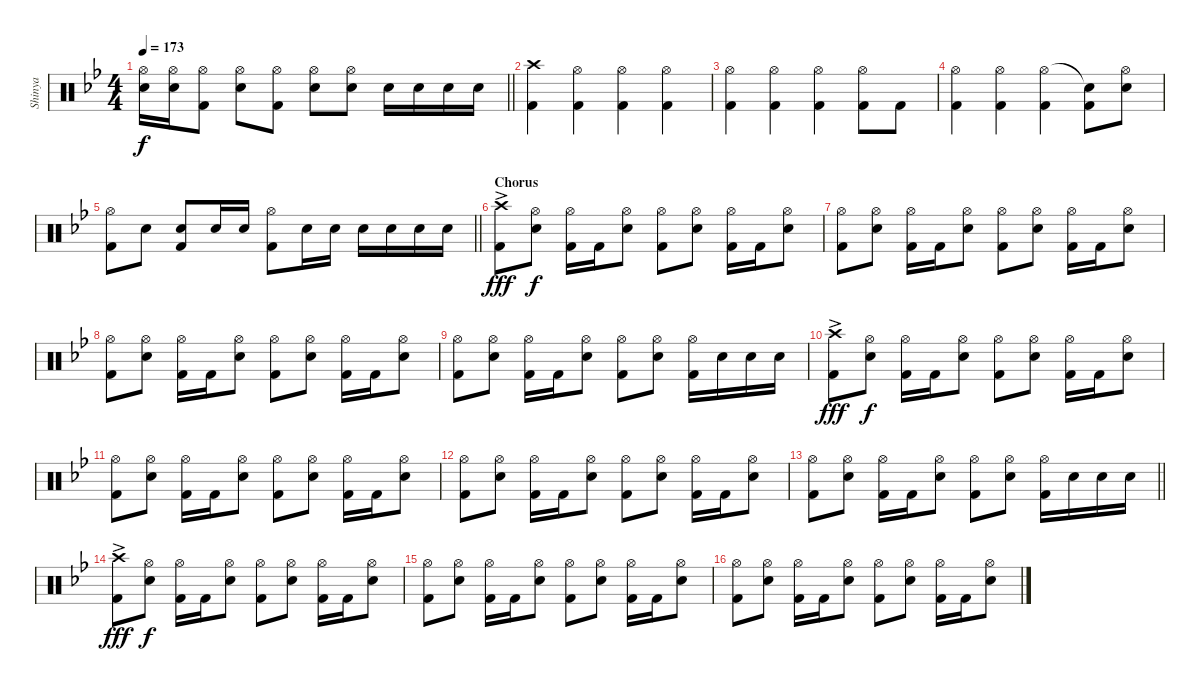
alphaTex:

\track ("Shinya" "Shinya") {instrument percussion}
\staff {score}
\articulation defaults
\ts (4 4)
\tempo 173
\clef neutral
\barLineRight lightlight
\ks bb
("Hi-Hat (open)" "Snare (hit) 2").16{dy f} ("Hi-Hat (open)" "Snare (hit) 2").16 ("Hi-Hat (open)" "Kick (hit) 2").8 ("Hi-Hat (open)" "Snare (hit) 2").8 ("Hi-Hat (open)" "Kick (hit) 2").8 ("Hi-Hat (open)" "Snare (hit) 2").8 ("Hi-Hat (open)" "Snare (hit) 2").8 "Snare (hit) 2".16 "Snare (hit) 2".16 "Snare (hit) 2".16 "Snare (hit) 2".16 |
("Crash high (hit)" "Kick (hit) 2").4 ("Hi-Hat (open)" "Kick (hit) 2").4 ("Hi-Hat (open)" "Kick (hit) 2").4 ("Hi-Hat (open)" "Kick (hit) 2").4 |
("Hi-Hat (open)" "Kick (hit) 2").4 ("Hi-Hat (open)" "Kick (hit) 2").4 ("Hi-Hat (open)" "Kick (hit) 2").4 ("Hi-Hat (open)" "Kick (hit) 2").8 "Kick (hit) 2".8 |
("Hi-Hat (open)" "Kick (hit) 2").4 ("Hi-Hat (open)" "Kick (hit) 2").4 ("Hi-Hat (open)" "Kick (hit) 2").4 ("Snare (hit)"{t} "Kick (hit) 2").8 ("Hi-Hat (open)" "Snare (hit) 2").8 |
\barLineRight lightlight
("Hi-Hat (open)" "Kick (hit) 2").8 "Snare (hit) 2".8 ("Snare (hit) 2" "Kick (hit) 2").8 "Snare (hit) 2".16 "Snare (hit) 2".16 ("Hi-Hat (open)" "Kick (hit) 2").8 "Snare (hit) 2".16 "Snare (hit) 2".16 "Snare (hit) 2".16 "Snare (hit) 2".16 "Snare (hit) 2".16 "Snare (hit) 2".16 |
\section ("" "Chorus")
("Crash high (hit)"{ac} "Kick (hit) 2").8{dy fff} ("Hi-Hat (open)" "Snare (hit) 2").8{dy f} ("Hi-Hat (open)" "Kick (hit) 2").16 "Kick (hit) 2".16 ("Hi-Hat (open)" "Snare (hit) 2").8 ("Hi-Hat (open)" "Kick (hit) 2").8 ("Hi-Hat (open)" "Snare (hit) 2").8 ("Hi-Hat (open)" "Kick (hit) 2").16 "Kick (hit) 2".16 ("Hi-Hat (open)" "Snare (hit) 2").8 |
("Hi-Hat (open)" "Kick (hit) 2").8 ("Hi-Hat (open)" "Snare (hit) 2").8 ("Hi-Hat (open)" "Kick (hit) 2").16 "Kick (hit) 2".16 ("Hi-Hat (open)" "Snare (hit) 2").8 ("Hi-Hat (open)" "Kick (hit) 2").8 ("Hi-Hat (open)" "Snare (hit) 2").8 ("Hi-Hat (open)" "Kick (hit) 2").16 "Kick (hit) 2".16 ("Hi-Hat (open)" "Snare (hit) 2").8 |
("Hi-Hat (open)" "Kick (hit) 2").8 ("Hi-Hat (open)" "Snare (hit) 2").8 ("Hi-Hat (open)" "Kick (hit) 2").16 "Kick (hit) 2".16 ("Hi-Hat (open)" "Snare (hit) 2").8 ("Hi-Hat (open)" "Kick (hit) 2").8 ("Hi-Hat (open)" "Snare (hit) 2").8 ("Hi-Hat (open)" "Kick (hit) 2").16 "Kick (hit) 2".16 ("Hi-Hat (open)" "Snare (hit) 2").8 |
("Hi-Hat (open)" "Kick (hit) 2").8 ("Hi-Hat (open)" "Snare (hit) 2").8 ("Hi-Hat (open)" "Kick (hit) 2").16 "Kick (hit) 2".16 ("Hi-Hat (open)" "Snare (hit) 2").8 ("Hi-Hat (open)" "Kick (hit) 2").8 ("Hi-Hat (open)" "Snare (hit) 2").8 ("Hi-Hat (open)" "Kick (hit) 2").16 "Snare (hit) 2".16 "Snare (hit) 2".16 "Snare (hit) 2".16 |
("Crash high (hit)"{ac} "Kick (hit) 2").8{dy fff} ("Hi-Hat (open)" "Snare (hit) 2").8{dy f} ("Hi-Hat (open)" "Kick (hit) 2").16 "Kick (hit) 2".16 ("Hi-Hat (open)" "Snare (hit) 2").8 ("Hi-Hat (open)" "Kick (hit) 2").8 ("Hi-Hat (open)" "Snare (hit) 2").8 ("Hi-Hat (open)" "Kick (hit) 2").16 "Kick (hit) 2".16 ("Hi-Hat (open)" "Snare (hit) 2").8 |
("Hi-Hat (open)" "Kick (hit) 2").8 ("Hi-Hat (open)" "Snare (hit) 2").8 ("Hi-Hat (open)" "Kick (hit) 2").16 "Kick (hit) 2".16 ("Hi-Hat (open)" "Snare (hit) 2").8 ("Hi-Hat (open)" "Kick (hit) 2").8 ("Hi-Hat (open)" "Snare (hit) 2").8 ("Hi-Hat (open)" "Kick (hit) 2").16 "Kick (hit) 2".16 ("Hi-Hat (open)" "Snare (hit) 2").8 |
("Hi-Hat (open)" "Kick (hit) 2").8 ("Hi-Hat (open)" "Snare (hit) 2").8 ("Hi-Hat (open)" "Kick (hit) 2").16 "Kick (hit) 2".16 ("Hi-Hat (open)" "Snare (hit) 2").8 ("Hi-Hat (open)" "Kick (hit) 2").8 ("Hi-Hat (open)" "Snare (hit) 2").8 ("Hi-Hat (open)" "Kick (hit) 2").16 "Kick (hit) 2".16 ("Hi-Hat (open)" "Snare (hit) 2").8 |
\barLineRight lightlight
("Hi-Hat (open)" "Kick (hit) 2").8 ("Hi-Hat (open)" "Snare (hit) 2").8 ("Hi-Hat (open)" "Kick (hit) 2").16 "Kick (hit) 2".16 ("Hi-Hat (open)" "Snare (hit) 2").8 ("Hi-Hat (open)" "Kick (hit) 2").8 ("Hi-Hat (open)" "Snare (hit) 2").8 ("Hi-Hat (open)" "Kick (hit) 2").16 "Snare (hit) 2".16 "Snare (hit) 2".16 "Snare (hit) 2".16 |
("Crash high (hit)"{ac} "Kick (hit) 2").8{dy fff} ("Hi-Hat (open)" "Snare (hit) 2").8{dy f} ("Hi-Hat (open)" "Kick (hit) 2").16 "Kick (hit) 2".16 ("Hi-Hat (open)" "Snare (hit) 2").8 ("Hi-Hat (open)" "Kick (hit) 2").8 ("Hi-Hat (open)" "Snare (hit) 2").8 ("Hi-Hat (open)" "Kick (hit) 2").16 "Kick (hit) 2".16 ("Hi-Hat (open)" "Snare (hit) 2").8 |
("Hi-Hat (open)" "Kick (hit) 2").8 ("Hi-Hat (open)" "Snare (hit) 2").8 ("Hi-Hat (open)" "Kick (hit) 2").16 "Kick (hit) 2".16 ("Hi-Hat (open)" "Snare (hit) 2").8 ("Hi-Hat (open)" "Kick (hit) 2").8 ("Hi-Hat (open)" "Snare (hit) 2").8 ("Hi-Hat (open)" "Kick (hit) 2").16 "Kick (hit) 2".16 ("Hi-Hat (open)" "Snare (hit) 2").8 |
("Hi-Hat (open)" "Kick (hit) 2").8 ("Hi-Hat (open)" "Snare (hit) 2").8 ("Hi-Hat (open)" "Kick (hit) 2").16 "Kick (hit) 2".16 ("Hi-Hat (open)" "Snare (hit) 2").8 ("Hi-Hat (open)" "Kick (hit) 2").8 ("Hi-Hat (open)" "Snare (hit) 2").8 ("Hi-Hat (open)" "Kick (hit) 2").16 "Kick (hit) 2".16 ("Hi-Hat (open)" "Snare (hit) 2").8
